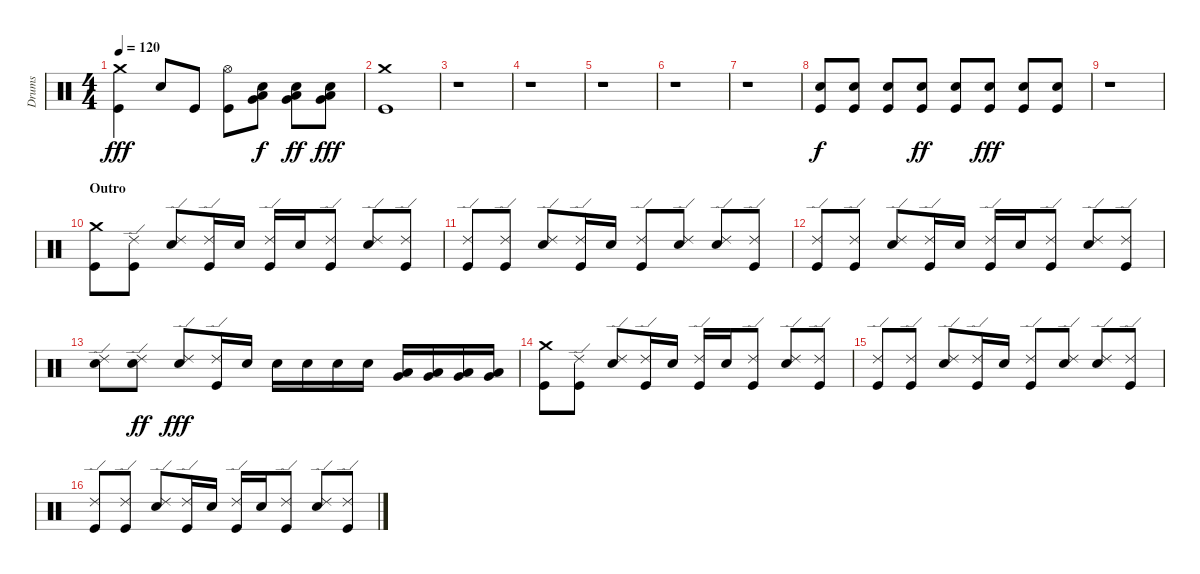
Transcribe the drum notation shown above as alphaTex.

\track ("Drums" "Drums") {instrument percussion}
\staff {score}
\articulation defaults
\ts (4 4)
\tempo 120
\clef neutral
\ks c
("Crash medium (hit)" "Kick (hit)").4{dy fff} "Electric Snare (hit)".8 "Kick (hit)".8 ("Hi-Hat (open)" "Kick (hit)").8 ("Electric Snare (hit)" "Very Low Tom (hit)" "Low Floor Tom (hit)").8{dy f} ("Electric Snare (hit)" "Very Low Tom (hit)" "Low Floor Tom (hit)").8{dy ff} ("Electric Snare (hit)" "Very Low Tom (hit)" "Low Floor Tom (hit)").8{dy fff} |
("Crash medium (hit)" "Kick (hit)").1 |
r.1 |
r.1 |
r.1 |
r.1 |
r.1 |
("Electric Snare (hit)" "Kick (hit)").8{dy f} ("Electric Snare (hit)" "Kick (hit)").8 ("Electric Snare (hit)" "Kick (hit)").8 ("Electric Snare (hit)" "Kick (hit)").8{dy ff} ("Electric Snare (hit)" "Kick (hit)").8 ("Electric Snare (hit)" "Kick (hit)").8{dy fff} ("Electric Snare (hit)" "Kick (hit)").8 ("Electric Snare (hit)" "Kick (hit)").8 |
r.1 |
\section ("" "Outro")
("Crash medium (hit)" "Kick (hit)").8{volume 16} ("Ride (edge) 2" "Kick (hit)").8 ("Ride (edge) 2" "Electric Snare (hit)").8 ("Ride (edge) 2" "Kick (hit)").16 "Electric Snare (hit)".16 ("Ride (edge) 2" "Kick (hit)").16 "Electric Snare (hit)".16 ("Ride (edge) 2" "Kick (hit)").8 ("Ride (edge) 2" "Electric Snare (hit)").8 ("Ride (edge) 2" "Kick (hit)").8 |
("Ride (edge) 2" "Kick (hit)").8 ("Ride (edge) 2" "Kick (hit)").8 ("Ride (edge) 2" "Electric Snare (hit)").8 ("Ride (edge) 2" "Kick (hit)").16 "Electric Snare (hit)".16 ("Ride (edge) 2" "Kick (hit)").8 ("Ride (edge) 2" "Electric Snare (hit)").8 ("Ride (edge) 2" "Electric Snare (hit)").8 ("Ride (edge) 2" "Kick (hit)").8 |
("Ride (edge) 2" "Kick (hit)").8 ("Ride (edge) 2" "Kick (hit)").8 ("Ride (edge) 2" "Electric Snare (hit)").8 ("Ride (edge) 2" "Kick (hit)").16 "Electric Snare (hit)".16 ("Ride (edge) 2" "Kick (hit)").16 "Electric Snare (hit)".16 ("Ride (edge) 2" "Kick (hit)").8 ("Ride (edge) 2" "Electric Snare (hit)").8 ("Ride (edge) 2" "Kick (hit)").8 |
("Ride (edge) 2" "Electric Snare (hit)").8 ("Ride (edge) 2" "Electric Snare (hit)").8{dy ff} ("Ride (edge) 2" "Electric Snare (hit)").8{dy fff} ("Ride (edge) 2" "Kick (hit)").16 "Electric Snare (hit)".16 "Electric Snare (hit)".16 "Electric Snare (hit)".16 "Electric Snare (hit)".16 "Electric Snare (hit)".16 ("Low Tom (hit)" "Very Low Tom (hit)").16 ("Low Tom (hit)" "Very Low Tom (hit)").16 ("Low Tom (hit)" "Very Low Tom (hit)").16 ("Low Tom (hit)" "Very Low Tom (hit)").16 |
("Crash medium (hit)" "Kick (hit)").8 ("Ride (edge) 2" "Kick (hit)").8 ("Ride (edge) 2" "Electric Snare (hit)").8 ("Ride (edge) 2" "Kick (hit)").16 "Electric Snare (hit)".16 ("Ride (edge) 2" "Kick (hit)").16 "Electric Snare (hit)".16 ("Ride (edge) 2" "Kick (hit)").8 ("Ride (edge) 2" "Electric Snare (hit)").8 ("Ride (edge) 2" "Kick (hit)").8 |
("Ride (edge) 2" "Kick (hit)").8 ("Ride (edge) 2" "Kick (hit)").8 ("Ride (edge) 2" "Electric Snare (hit)").8 ("Ride (edge) 2" "Kick (hit)").16 "Electric Snare (hit)".16 ("Ride (edge) 2" "Kick (hit)").8 ("Ride (edge) 2" "Electric Snare (hit)").8 ("Ride (edge) 2" "Electric Snare (hit)").8 ("Ride (edge) 2" "Kick (hit)").8 |
("Ride (edge) 2" "Kick (hit)").8 ("Ride (edge) 2" "Kick (hit)").8 ("Ride (edge) 2" "Electric Snare (hit)").8 ("Ride (edge) 2" "Kick (hit)").16 "Electric Snare (hit)".16 ("Ride (edge) 2" "Kick (hit)").16 "Electric Snare (hit)".16 ("Ride (edge) 2" "Kick (hit)").8 ("Ride (edge) 2" "Electric Snare (hit)").8 ("Ride (edge) 2" "Kick (hit)").8
